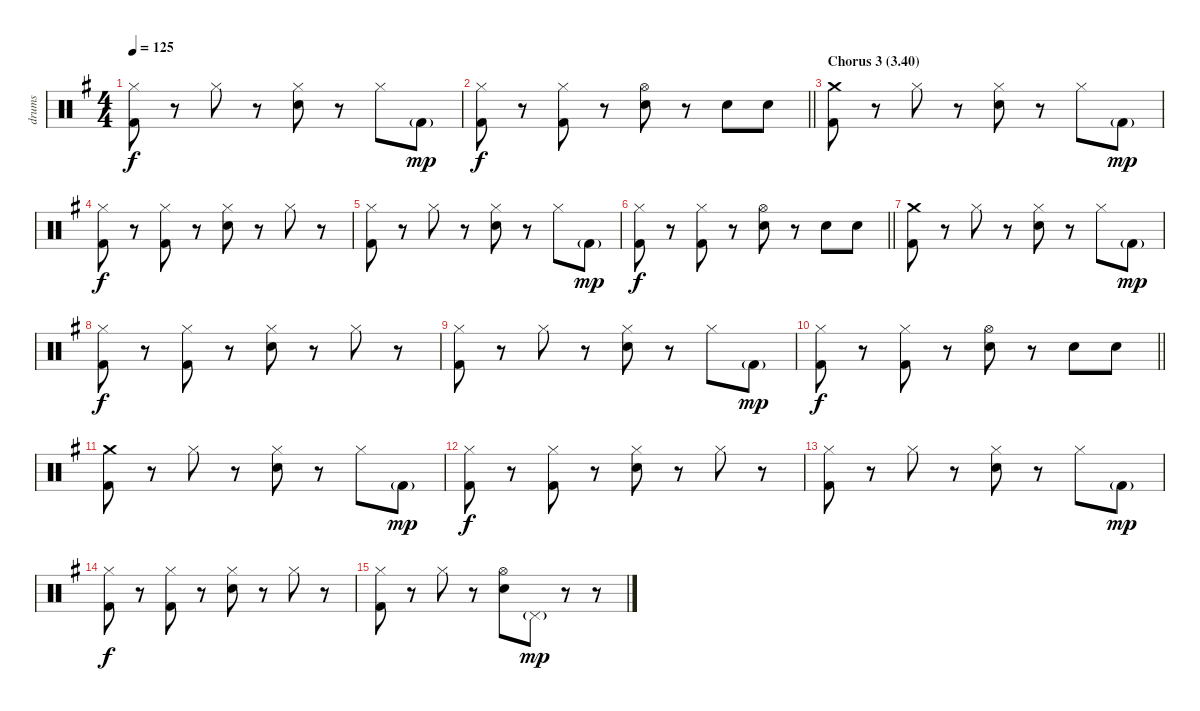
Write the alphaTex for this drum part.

\track ("drums" "drums") {instrument percussion}
\staff {score}
\articulation defaults
\ts (4 4)
\tempo 125
\clef neutral
\ks g
("Hi-Hat (closed)" "Kick (hit) 2").8{dy f} r.8 "Hi-Hat (closed)".8 r.8 ("Hi-Hat (closed)" "Electric Snare (hit)").8 r.8 "Hi-Hat (closed)".8 "Kick (hit) 2"{g}.8{dy mp} |
\barLineRight lightlight
("Hi-Hat (closed)" "Kick (hit) 2").8{dy f} r.8 ("Hi-Hat (closed)" "Kick (hit) 2").8 r.8 ("Hi-Hat (open)" "Electric Snare (hit)").8 r.8 "Electric Snare (hit)".8 "Electric Snare (hit)".8 |
\section ("" "Chorus 3 (3.40)")
("Crash medium (hit)" "Kick (hit) 2").8 r.8 "Hi-Hat (closed)".8 r.8 ("Hi-Hat (closed)" "Electric Snare (hit)").8 r.8 "Hi-Hat (closed)".8 "Kick (hit) 2"{g}.8{dy mp} |
("Hi-Hat (closed)" "Kick (hit) 2").8{dy f} r.8 ("Hi-Hat (closed)" "Kick (hit) 2").8 r.8 ("Hi-Hat (closed)" "Electric Snare (hit)").8 r.8 "Hi-Hat (closed)".8 r.8 |
("Hi-Hat (closed)" "Kick (hit) 2").8 r.8 "Hi-Hat (closed)".8 r.8 ("Hi-Hat (closed)" "Electric Snare (hit)").8 r.8 "Hi-Hat (closed)".8 "Kick (hit) 2"{g}.8{dy mp} |
\barLineRight lightlight
("Hi-Hat (closed)" "Kick (hit) 2").8{dy f} r.8 ("Hi-Hat (closed)" "Kick (hit) 2").8 r.8 ("Hi-Hat (open)" "Electric Snare (hit)").8 r.8 "Electric Snare (hit)".8 "Electric Snare (hit)".8 |
("Crash medium (hit)" "Kick (hit) 2").8 r.8 "Hi-Hat (closed)".8 r.8 ("Hi-Hat (closed)" "Electric Snare (hit)").8 r.8 "Hi-Hat (closed)".8 "Kick (hit) 2"{g}.8{dy mp} |
("Hi-Hat (closed)" "Kick (hit) 2").8{dy f} r.8 ("Hi-Hat (closed)" "Kick (hit) 2").8 r.8 ("Hi-Hat (closed)" "Electric Snare (hit)").8 r.8 "Hi-Hat (closed)".8 r.8 |
("Hi-Hat (closed)" "Kick (hit) 2").8 r.8 "Hi-Hat (closed)".8 r.8 ("Hi-Hat (closed)" "Electric Snare (hit)").8 r.8 "Hi-Hat (closed)".8 "Kick (hit) 2"{g}.8{dy mp} |
\barLineRight lightlight
("Hi-Hat (closed)" "Kick (hit) 2").8{dy f} r.8 ("Hi-Hat (closed)" "Kick (hit) 2").8 r.8 ("Hi-Hat (open)" "Electric Snare (hit)").8 r.8 "Electric Snare (hit)".8 "Electric Snare (hit)".8 |
("Crash medium (hit)" "Kick (hit) 2").8 r.8 "Hi-Hat (closed)".8 r.8 ("Hi-Hat (closed)" "Electric Snare (hit)").8 r.8 "Hi-Hat (closed)".8 "Kick (hit) 2"{g}.8{dy mp} |
("Hi-Hat (closed)" "Kick (hit) 2").8{dy f} r.8 ("Hi-Hat (closed)" "Kick (hit) 2").8 r.8 ("Hi-Hat (closed)" "Electric Snare (hit)").8 r.8 "Hi-Hat (closed)".8 r.8 |
("Hi-Hat (closed)" "Kick (hit) 2").8 r.8 "Hi-Hat (closed)".8 r.8 ("Hi-Hat (closed)" "Electric Snare (hit)").8 r.8 "Hi-Hat (closed)".8 "Kick (hit) 2"{g}.8{dy mp} |
("Hi-Hat (closed)" "Kick (hit) 2").8{dy f} r.8 ("Hi-Hat (closed)" "Kick (hit) 2").8 r.8 ("Hi-Hat (closed)" "Electric Snare (hit)").8 r.8 "Hi-Hat (closed)".8 r.8 |
("Hi-Hat (closed)" "Kick (hit) 2").8 r.8 "Hi-Hat (closed)".8 r.8 ("Hi-Hat (open)" "Electric Snare (hit)").8 "Pedal Hi-Hat (hit)"{g}.8{dy mp} r.8 r.8
